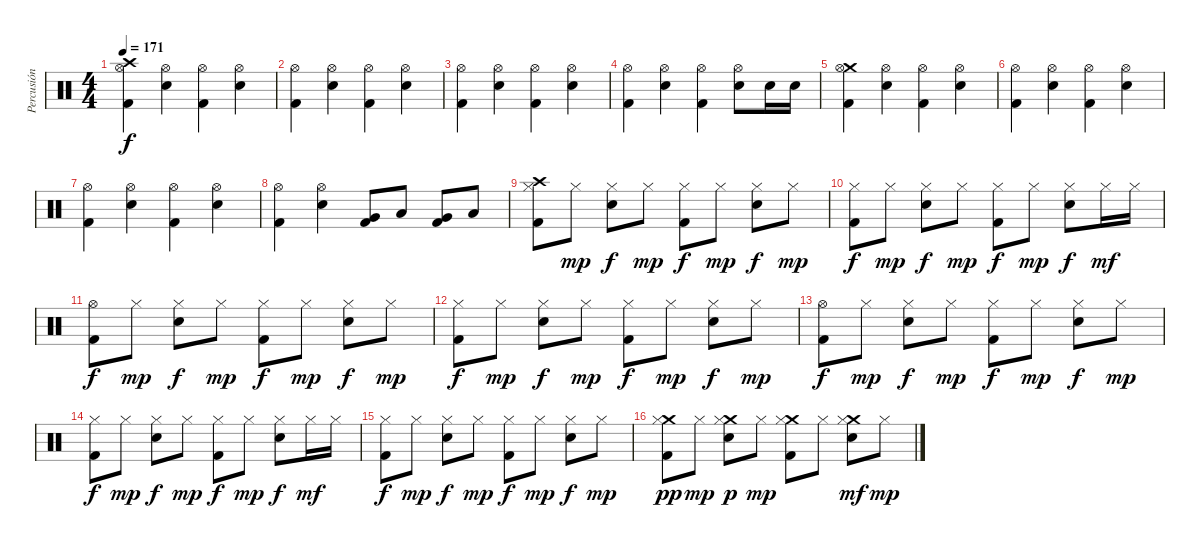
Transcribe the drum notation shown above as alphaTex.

\track ("Percusión" "Percusión") {instrument percussion}
\staff {score}
\articulation defaults
\ts (4 4)
\tempo 171
\clef neutral
\ks c
("Crash high (hit)" "Hi-Hat (open)" "Kick (hit) 2").4{dy f} ("Hi-Hat (open)" "Electric Snare (hit)").4 ("Hi-Hat (open)" "Kick (hit) 2").4 ("Hi-Hat (open)" "Electric Snare (hit)").4 |
("Hi-Hat (open)" "Kick (hit) 2").4 ("Hi-Hat (open)" "Electric Snare (hit)").4 ("Hi-Hat (open)" "Kick (hit) 2").4 ("Hi-Hat (open)" "Electric Snare (hit)").4 |
("Hi-Hat (open)" "Kick (hit) 2").4 ("Hi-Hat (open)" "Electric Snare (hit)").4 ("Hi-Hat (open)" "Kick (hit) 2").4 ("Hi-Hat (open)" "Electric Snare (hit)").4 |
("Hi-Hat (open)" "Kick (hit) 2").4 ("Hi-Hat (open)" "Electric Snare (hit)").4 ("Hi-Hat (open)" "Kick (hit) 2").4 ("Hi-Hat (open)" "Electric Snare (hit)").8 "Electric Snare (hit)".16 "Electric Snare (hit)".16 |
("Crash medium (hit)" "Hi-Hat (open)" "Kick (hit) 2").4 ("Hi-Hat (open)" "Electric Snare (hit)").4 ("Hi-Hat (open)" "Kick (hit) 2").4 ("Hi-Hat (open)" "Electric Snare (hit)").4 |
("Hi-Hat (open)" "Kick (hit) 2").4 ("Hi-Hat (open)" "Electric Snare (hit)").4 ("Hi-Hat (open)" "Kick (hit) 2").4 ("Hi-Hat (open)" "Electric Snare (hit)").4 |
("Hi-Hat (open)" "Kick (hit) 2").4 ("Hi-Hat (open)" "Electric Snare (hit)").4 ("Hi-Hat (open)" "Kick (hit) 2").4 ("Hi-Hat (open)" "Electric Snare (hit)").4 |
("Hi-Hat (open)" "Kick (hit) 2").4 ("Hi-Hat (open)" "Electric Snare (hit)").4 ("Very Low Tom (hit)" "Kick (hit) 2").8 "Low Tom (hit)".8 ("Very Low Tom (hit)" "Kick (hit) 2").8 "Low Tom (hit)".8 |
("Crash high (hit)" "Hi-Hat (closed)" "Kick (hit) 2").8 "Hi-Hat (closed)".8{dy mp} ("Hi-Hat (closed)" "Electric Snare (hit)").8{dy f} "Hi-Hat (closed)".8{dy mp} ("Hi-Hat (closed)" "Kick (hit) 2").8{dy f} "Hi-Hat (closed)".8{dy mp} ("Hi-Hat (closed)" "Electric Snare (hit)").8{dy f} "Hi-Hat (closed)".8{dy mp} |
("Hi-Hat (closed)" "Kick (hit) 2").8{dy f} "Hi-Hat (closed)".8{dy mp} ("Hi-Hat (closed)" "Electric Snare (hit)").8{dy f} "Hi-Hat (closed)".8{dy mp} ("Hi-Hat (closed)" "Kick (hit) 2").8{dy f} "Hi-Hat (closed)".8{dy mp} ("Hi-Hat (closed)" "Electric Snare (hit)").8{dy f} "Hi-Hat (closed)".16{dy mf} "Hi-Hat (closed)".16 |
("Hi-Hat (open)" "Kick (hit) 2").8{dy f} "Hi-Hat (closed)".8{dy mp} ("Hi-Hat (closed)" "Electric Snare (hit)").8{dy f} "Hi-Hat (closed)".8{dy mp} ("Hi-Hat (closed)" "Kick (hit) 2").8{dy f} "Hi-Hat (closed)".8{dy mp} ("Hi-Hat (closed)" "Electric Snare (hit)").8{dy f} "Hi-Hat (closed)".8{dy mp} |
("Hi-Hat (closed)" "Kick (hit) 2").8{dy f} "Hi-Hat (closed)".8{dy mp} ("Hi-Hat (closed)" "Electric Snare (hit)").8{dy f} "Hi-Hat (closed)".8{dy mp} ("Hi-Hat (closed)" "Kick (hit) 2").8{dy f} "Hi-Hat (closed)".8{dy mp} ("Hi-Hat (closed)" "Electric Snare (hit)").8{dy f} "Hi-Hat (closed)".8{dy mp} |
("Hi-Hat (open)" "Kick (hit) 2").8{dy f} "Hi-Hat (closed)".8{dy mp} ("Hi-Hat (closed)" "Electric Snare (hit)").8{dy f} "Hi-Hat (closed)".8{dy mp} ("Hi-Hat (closed)" "Kick (hit) 2").8{dy f} "Hi-Hat (closed)".8{dy mp} ("Hi-Hat (closed)" "Electric Snare (hit)").8{dy f} "Hi-Hat (closed)".8{dy mp} |
("Hi-Hat (closed)" "Kick (hit) 2").8{dy f} "Hi-Hat (closed)".8{dy mp} ("Hi-Hat (closed)" "Electric Snare (hit)").8{dy f} "Hi-Hat (closed)".8{dy mp} ("Hi-Hat (closed)" "Kick (hit) 2").8{dy f} "Hi-Hat (closed)".8{dy mp} ("Hi-Hat (closed)" "Electric Snare (hit)").8{dy f} "Hi-Hat (closed)".16{dy mf} "Hi-Hat (closed)".16 |
("Hi-Hat (closed)" "Kick (hit) 2").8{dy f} "Hi-Hat (closed)".8{dy mp} ("Hi-Hat (closed)" "Electric Snare (hit)").8{dy f} "Hi-Hat (closed)".8{dy mp} ("Hi-Hat (closed)" "Kick (hit) 2").8{dy f} "Hi-Hat (closed)".8{dy mp} ("Hi-Hat (closed)" "Electric Snare (hit)").8{dy f} "Hi-Hat (closed)".8{dy mp} |
("Crash medium (hit)" "Hi-Hat (closed)" "Kick (hit) 2").8{dy pp} "Hi-Hat (closed)".8{dy mp} ("Crash medium (hit)" "Hi-Hat (closed)" "Electric Snare (hit)").8{dy p} "Hi-Hat (closed)".8{dy mp} ("Crash medium (hit)" "Hi-Hat (closed)" "Kick (hit) 2").8 "Hi-Hat (closed)".8 ("Crash medium (hit)" "Hi-Hat (closed)" "Electric Snare (hit)").8{dy mf} "Hi-Hat (closed)".8{dy mp}
